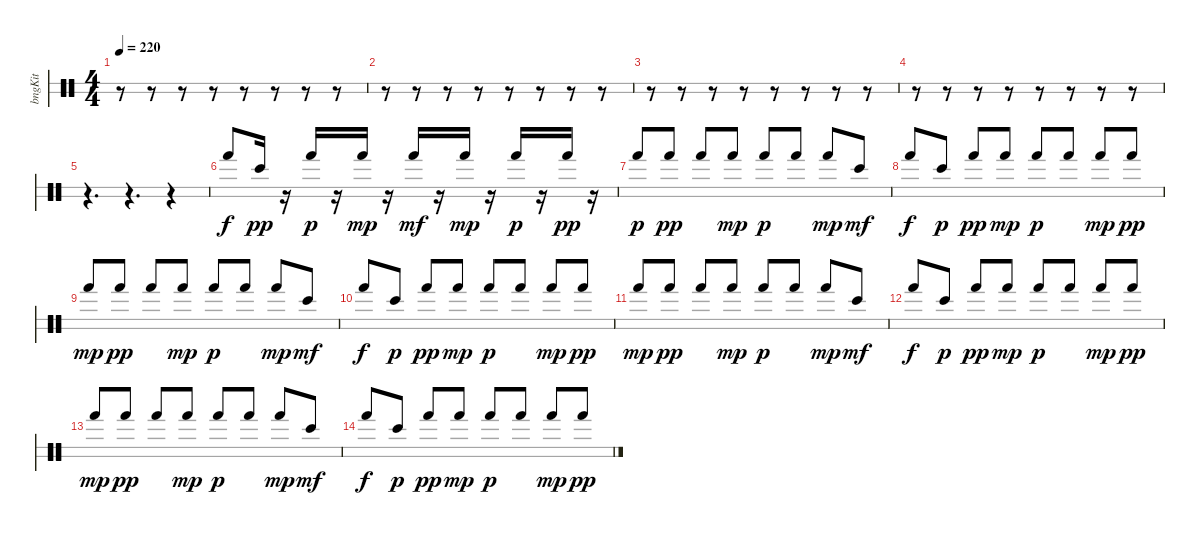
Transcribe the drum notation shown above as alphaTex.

\bracketExtendMode groupsimilarinstruments
\otherSystemsTrackNameOrientation horizontal
\track ("Bongos" "bngKit") {instrument percussion}
\staff {score 2}
\articulation defaults
\ts (4 4)
\tempo 220
\clef neutral
\ks c
r.8{dy p beam Down} r.8{beam Down} r.8{beam Down} r.8{beam Down} r.8{beam Down} r.8{beam Down} r.8{beam Down} r.8{beam Down} |
r.8{beam Down} r.8{beam Down} r.8{beam Down} r.8{beam Down} r.8{beam Down} r.8{beam Down} r.8{beam Down} r.8{beam Down} |
r.8{beam Down} r.8{beam Down} r.8{beam Down} r.8{beam Down} r.8{beam Down} r.8{beam Down} r.8{beam Down} r.8{beam Down} |
r.8{beam Down} r.8{beam Down} r.8{beam Down} r.8{beam Down} r.8{beam Down} r.8{beam Down} r.8{beam Down} r.8{beam Down} |
r.4{d beam Down} r.4{d beam Down} r.4{beam Down} |
"Hand (hit)".8{dy f beam Up} "Bongo High (hit)".16{dy pp beam Up} r.16{beam Up} "Hand (hit)".16{dy p beam Up} r.16{beam Up} "Hand (hit)".16{dy mp beam Up} r.16{beam Up} "Hand (hit)".16{dy mf beam Up} r.16{beam Up} "Hand (hit)".16{dy mp beam Up} r.16{beam Up} "Hand (hit)".16{dy p beam Up} r.16{beam Up} "Hand (hit)".16{dy pp beam Up} r.16{beam Up} |
"Hand (hit)".8{dy p beam Up} "Hand (hit)".8{dy pp beam Up} "Hand (hit)".8{beam Up} "Hand (hit)".8{dy mp beam Up} "Hand (hit)".8{dy p beam Up} "Hand (hit)".8{beam Up} "Hand (hit)".8{dy mp beam Up} "Bongo High (hit)".8{dy mf beam Up} |
"Hand (hit)".8{dy f beam Up} "Bongo High (hit)".8{dy p beam Up} "Hand (hit)".8{dy pp beam Up} "Hand (hit)".8{dy mp beam Up} "Hand (hit)".8{dy p beam Up} "Hand (hit)".8{beam Up} "Hand (hit)".8{dy mp beam Up} "Hand (hit)".8{dy pp beam Up} |
"Hand (hit)".8{dy mp beam Up} "Hand (hit)".8{dy pp beam Up} "Hand (hit)".8{beam Up} "Hand (hit)".8{dy mp beam Up} "Hand (hit)".8{dy p beam Up} "Hand (hit)".8{beam Up} "Hand (hit)".8{dy mp beam Up} "Bongo High (hit)".8{dy mf beam Up} |
"Hand (hit)".8{dy f beam Up} "Bongo High (hit)".8{dy p beam Up} "Hand (hit)".8{dy pp beam Up} "Hand (hit)".8{dy mp beam Up} "Hand (hit)".8{dy p beam Up} "Hand (hit)".8{beam Up} "Hand (hit)".8{dy mp beam Up} "Hand (hit)".8{dy pp beam Up} |
"Hand (hit)".8{dy mp beam Up} "Hand (hit)".8{dy pp beam Up} "Hand (hit)".8{beam Up} "Hand (hit)".8{dy mp beam Up} "Hand (hit)".8{dy p beam Up} "Hand (hit)".8{beam Up} "Hand (hit)".8{dy mp beam Up} "Bongo High (hit)".8{dy mf beam Up} |
"Hand (hit)".8{dy f beam Up} "Bongo High (hit)".8{dy p beam Up} "Hand (hit)".8{dy pp beam Up} "Hand (hit)".8{dy mp beam Up} "Hand (hit)".8{dy p beam Up} "Hand (hit)".8{beam Up} "Hand (hit)".8{dy mp beam Up} "Hand (hit)".8{dy pp beam Up} |
"Hand (hit)".8{dy mp beam Up} "Hand (hit)".8{dy pp beam Up} "Hand (hit)".8{beam Up} "Hand (hit)".8{dy mp beam Up} "Hand (hit)".8{dy p beam Up} "Hand (hit)".8{beam Up} "Hand (hit)".8{dy mp beam Up} "Bongo High (hit)".8{dy mf beam Up} |
"Hand (hit)".8{dy f beam Up} "Bongo High (hit)".8{dy p beam Up} "Hand (hit)".8{dy pp beam Up} "Hand (hit)".8{dy mp beam Up} "Hand (hit)".8{dy p beam Up} "Hand (hit)".8{beam Up} "Hand (hit)".8{dy mp beam Up} "Hand (hit)".8{dy pp beam Up}
